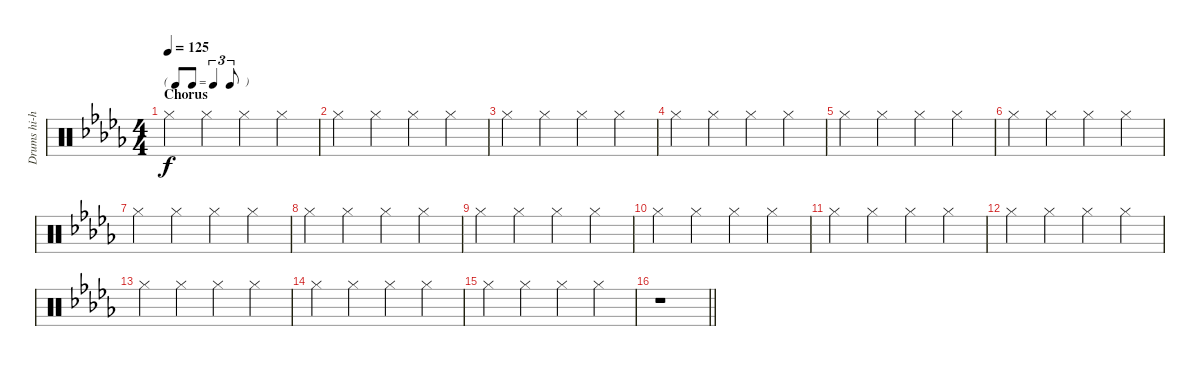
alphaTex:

\track ("Drums hi-hat" "Drums hi-h") {instrument percussion}
\staff {score}
\articulation defaults
\ts (4 4)
\tf triplet8th
\section ("" "Chorus")
\tempo 125
\clef neutral
\ks db "Hi-Hat (closed)".4{dy f} "Hi-Hat (closed)".4 "Hi-Hat (closed)".4 "Hi-Hat (closed)".4
|
"Hi-Hat (closed)".4 "Hi-Hat (closed)".4 "Hi-Hat (closed)".4 "Hi-Hat (closed)".4 |
"Hi-Hat (closed)".4 "Hi-Hat (closed)".4 "Hi-Hat (closed)".4 "Hi-Hat (closed)".4 |
"Hi-Hat (closed)".4 "Hi-Hat (closed)".4 "Hi-Hat (closed)".4 "Hi-Hat (closed)".4 |
"Hi-Hat (closed)".4 "Hi-Hat (closed)".4 "Hi-Hat (closed)".4 "Hi-Hat (closed)".4 |
"Hi-Hat (closed)".4 "Hi-Hat (closed)".4 "Hi-Hat (closed)".4 "Hi-Hat (closed)".4 |
"Hi-Hat (closed)".4 "Hi-Hat (closed)".4 "Hi-Hat (closed)".4 "Hi-Hat (closed)".4 |
"Hi-Hat (closed)".4 "Hi-Hat (closed)".4 "Hi-Hat (closed)".4 "Hi-Hat (closed)".4 |
"Hi-Hat (closed)".4 "Hi-Hat (closed)".4 "Hi-Hat (closed)".4 "Hi-Hat (closed)".4 |
"Hi-Hat (closed)".4 "Hi-Hat (closed)".4 "Hi-Hat (closed)".4 "Hi-Hat (closed)".4 |
"Hi-Hat (closed)".4 "Hi-Hat (closed)".4 "Hi-Hat (closed)".4 "Hi-Hat (closed)".4 |
"Hi-Hat (closed)".4 "Hi-Hat (closed)".4 "Hi-Hat (closed)".4 "Hi-Hat (closed)".4 |
"Hi-Hat (closed)".4 "Hi-Hat (closed)".4 "Hi-Hat (closed)".4 "Hi-Hat (closed)".4 |
"Hi-Hat (closed)".4 "Hi-Hat (closed)".4 "Hi-Hat (closed)".4 "Hi-Hat (closed)".4 |
"Hi-Hat (closed)".4 "Hi-Hat (closed)".4 "Hi-Hat (closed)".4 "Hi-Hat (closed)".4 |
\barLineRight lightlight
r.1
